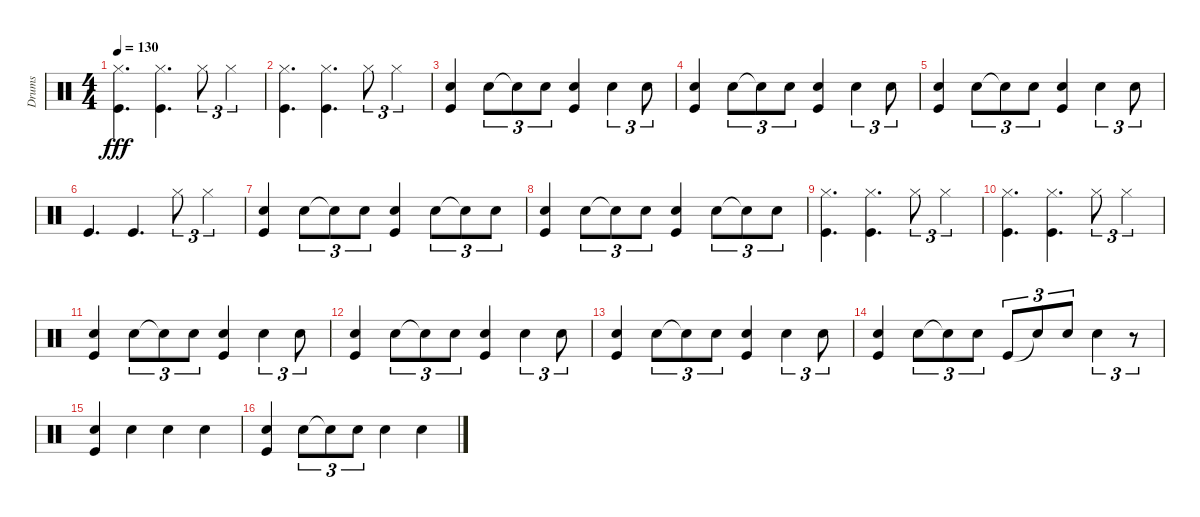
\track ("Drums" "Drums") {instrument percussion}
\staff {score}
\articulation defaults
\ts (4 4)
\tempo 130
\clef neutral
\ks c
("Hi-Hat (closed)" "Kick (hit)").4{d dy fff} ("Kick (hit)" "Hi-Hat (closed)").4{d} "Hi-Hat (closed)".8{tu (3 2)} "Hi-Hat (closed)".4{tu (3 2)} |
("Hi-Hat (closed)" "Kick (hit)").4{d} ("Hi-Hat (closed)" "Kick (hit)").4{d} "Hi-Hat (closed)".8{tu (3 2)} "Hi-Hat (closed)".4{tu (3 2)} |
("Snare (hit) 2" "Kick (hit)").4 "Hand Clap (hit)".8{tu (3 2)} "Snare (hit)"{t}.8{tu (3 2)} "Snare (hit) 2".8{tu (3 2)} ("Snare (hit) 2" "Kick (hit)").4 "Hand Clap (hit)".4{tu (3 2)} "Snare (hit) 2".8{tu (3 2)} |
("Kick (hit)" "Snare (hit) 2").4 "Hand Clap (hit)".8{tu (3 2)} "Snare (hit)"{t}.8{tu (3 2)} "Snare (hit) 2".8{tu (3 2)} ("Snare (hit) 2" "Kick (hit)").4 "Hand Clap (hit)".4{tu (3 2)} "Snare (hit) 2".8{tu (3 2)} |
("Kick (hit)" "Snare (hit) 2").4 "Hand Clap (hit)".8{tu (3 2)} "Snare (hit)"{t}.8{tu (3 2)} "Snare (hit) 2".8{tu (3 2)} ("Snare (hit) 2" "Kick (hit)").4 "Hand Clap (hit)".4{tu (3 2)} "Snare (hit) 2".8{tu (3 2)} |
"Kick (hit)".4{d} "Kick (hit)".4{d} "Hi-Hat (closed)".8{tu (3 2)} "Hi-Hat (closed)".4{tu (3 2)} |
("Snare (hit) 2" "Kick (hit)").4 "Hand Clap (hit)".8{tu (3 2)} "Snare (hit)"{t}.8{tu (3 2)} "Snare (hit) 2".8{tu (3 2)} ("Snare (hit) 2" "Kick (hit)").4 "Hand Clap (hit)".8{tu (3 2)} "Snare (hit)"{t}.8{tu (3 2)} "Snare (hit) 2".8{tu (3 2)} |
("Kick (hit)" "Snare (hit) 2").4 "Hand Clap (hit)".8{tu (3 2)} "Snare (hit)"{t}.8{tu (3 2)} "Snare (hit) 2".8{tu (3 2)} ("Kick (hit)" "Snare (hit) 2").4 "Hand Clap (hit)".8{tu (3 2)} "Snare (hit)"{t}.8{tu (3 2)} "Snare (hit) 2".8{tu (3 2)} |
("Hi-Hat (closed)" "Kick (hit)").4{d} ("Hi-Hat (closed)" "Kick (hit)").4{d} "Hi-Hat (closed)".8{tu (3 2)} "Hi-Hat (closed)".4{tu (3 2)} |
("Kick (hit)" "Hi-Hat (closed)").4{d} ("Kick (hit)" "Hi-Hat (closed)").4{d} "Hi-Hat (closed)".8{tu (3 2)} "Hi-Hat (closed)".4{tu (3 2)} |
("Kick (hit)" "Snare (hit) 2").4 "Hand Clap (hit)".8{tu (3 2)} "Snare (hit)"{t}.8{tu (3 2)} "Snare (hit) 2".8{tu (3 2)} ("Snare (hit) 2" "Kick (hit)").4 "Hand Clap (hit)".4{tu (3 2)} "Snare (hit) 2".8{tu (3 2)} |
("Kick (hit)" "Snare (hit) 2").4 "Hand Clap (hit)".8{tu (3 2)} "Snare (hit)"{t}.8{tu (3 2)} "Snare (hit) 2".8{tu (3 2)} ("Snare (hit) 2" "Kick (hit)").4 "Hand Clap (hit)".4{tu (3 2)} "Snare (hit) 2".8{tu (3 2)} |
("Snare (hit) 2" "Kick (hit)").4 "Hand Clap (hit)".8{tu (3 2)} "Snare (hit)"{t}.8{tu (3 2)} "Snare (hit) 2".8{tu (3 2)} ("Snare (hit) 2" "Kick (hit)").4 "Hand Clap (hit)".4{tu (3 2)} "Snare (hit) 2".8{tu (3 2)} |
("Snare (hit) 2" "Kick (hit)").4 "Hand Clap (hit)".8{tu (3 2)} "Snare (hit)"{t}.8{tu (3 2)} "Snare (hit) 2".8{tu (3 2)} "Kick (hit)".8{tu (3 2)} "Snare (hit)"{t}.8{tu (3 2)} "Hand Clap (hit)".8{tu (3 2)} "Hand Clap (hit)".4{tu (3 2)} r.8{tu (3 2)} |
("Snare (hit) 2" "Kick (hit)").4 "Snare (hit) 2".4 "Snare (hit) 2".4 "Snare (hit) 2".4 |
("Kick (hit)" "Snare (hit) 2").4 "Snare (hit) 2".8{tu (3 2)} "Snare (hit)"{t}.8{tu (3 2)} "Snare (hit) 2".8{tu (3 2)} "Snare (hit) 2".4 "Snare (hit) 2".4
